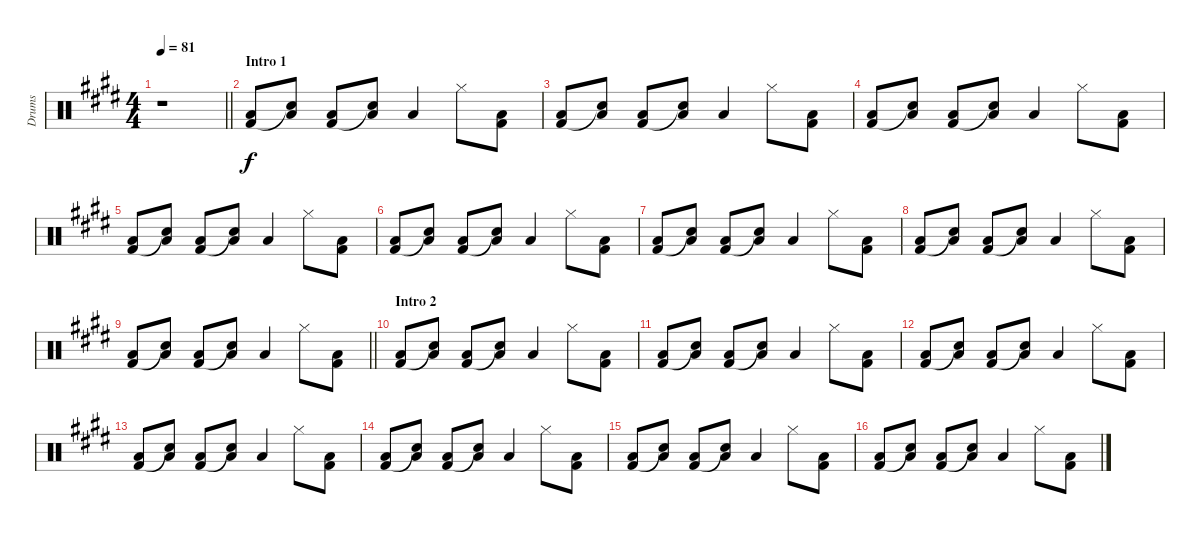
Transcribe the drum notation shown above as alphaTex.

\track ("Drums" "Drums") {instrument percussion}
\staff {score}
\articulation defaults
\ts (4 4)
\tempo 81
\clef neutral
\barLineRight lightlight
\ks c#minor
r.1{dy f} |
\section ("" "Intro 1")
("Low Floor Tom (hit)" "Kick (hit) 2").8 ("Low Floor Tom (hit)" "Snare (hit)"{t}).8 ("Low Floor Tom (hit)" "Kick (hit) 2").8 ("Low Floor Tom (hit)" "Snare (hit)"{t}).8 "Low Tom (hit)".4 "Hi-Hat (closed)".8 ("Low Floor Tom (hit)" "Kick (hit) 2").8 |
("Low Floor Tom (hit)" "Kick (hit) 2").8 ("Low Floor Tom (hit)" "Snare (hit)"{t}).8 ("Low Floor Tom (hit)" "Kick (hit) 2").8 ("Low Floor Tom (hit)" "Snare (hit)"{t}).8 "Low Tom (hit)".4 "Hi-Hat (closed)".8 ("Low Floor Tom (hit)" "Kick (hit) 2").8 |
("Low Floor Tom (hit)" "Kick (hit) 2").8 ("Low Floor Tom (hit)" "Snare (hit)"{t}).8 ("Low Floor Tom (hit)" "Kick (hit) 2").8 ("Low Floor Tom (hit)" "Snare (hit)"{t}).8 "Low Tom (hit)".4 "Hi-Hat (closed)".8 ("Low Floor Tom (hit)" "Kick (hit) 2").8 |
("Low Floor Tom (hit)" "Kick (hit) 2").8 ("Low Floor Tom (hit)" "Snare (hit)"{t}).8 ("Low Floor Tom (hit)" "Kick (hit) 2").8 ("Low Floor Tom (hit)" "Snare (hit)"{t}).8 "Low Tom (hit)".4 "Hi-Hat (closed)".8 ("Low Floor Tom (hit)" "Kick (hit) 2").8 |
("Low Floor Tom (hit)" "Kick (hit) 2").8 ("Low Floor Tom (hit)" "Snare (hit)"{t}).8 ("Low Floor Tom (hit)" "Kick (hit) 2").8 ("Low Floor Tom (hit)" "Snare (hit)"{t}).8 "Low Tom (hit)".4 "Hi-Hat (closed)".8 ("Low Floor Tom (hit)" "Kick (hit) 2").8 |
("Low Floor Tom (hit)" "Kick (hit) 2").8 ("Low Floor Tom (hit)" "Snare (hit)"{t}).8 ("Low Floor Tom (hit)" "Kick (hit) 2").8 ("Low Floor Tom (hit)" "Snare (hit)"{t}).8 "Low Tom (hit)".4 "Hi-Hat (closed)".8 ("Low Floor Tom (hit)" "Kick (hit) 2").8 |
("Low Floor Tom (hit)" "Kick (hit) 2").8 ("Low Floor Tom (hit)" "Snare (hit)"{t}).8 ("Low Floor Tom (hit)" "Kick (hit) 2").8 ("Low Floor Tom (hit)" "Snare (hit)"{t}).8 "Low Tom (hit)".4 "Hi-Hat (closed)".8 ("Low Floor Tom (hit)" "Kick (hit) 2").8 |
\barLineRight lightlight
("Low Floor Tom (hit)" "Kick (hit) 2").8 ("Low Floor Tom (hit)" "Snare (hit)"{t}).8 ("Low Floor Tom (hit)" "Kick (hit) 2").8 ("Low Floor Tom (hit)" "Snare (hit)"{t}).8 "Low Tom (hit)".4 "Hi-Hat (closed)".8 ("Low Floor Tom (hit)" "Kick (hit) 2").8 |
\section ("" "Intro 2")
("Low Floor Tom (hit)" "Kick (hit) 2").8 ("Low Floor Tom (hit)" "Snare (hit)"{t}).8 ("Low Floor Tom (hit)" "Kick (hit) 2").8 ("Low Floor Tom (hit)" "Snare (hit)"{t}).8 "Low Tom (hit)".4 "Hi-Hat (closed)".8 ("Low Floor Tom (hit)" "Kick (hit) 2").8 |
("Low Floor Tom (hit)" "Kick (hit) 2").8 ("Low Floor Tom (hit)" "Snare (hit)"{t}).8 ("Low Floor Tom (hit)" "Kick (hit) 2").8 ("Low Floor Tom (hit)" "Snare (hit)"{t}).8 "Low Tom (hit)".4 "Hi-Hat (closed)".8 ("Low Floor Tom (hit)" "Kick (hit) 2").8 |
("Low Floor Tom (hit)" "Kick (hit) 2").8 ("Low Floor Tom (hit)" "Snare (hit)"{t}).8 ("Low Floor Tom (hit)" "Kick (hit) 2").8 ("Low Floor Tom (hit)" "Snare (hit)"{t}).8 "Low Tom (hit)".4 "Hi-Hat (closed)".8 ("Low Floor Tom (hit)" "Kick (hit) 2").8 |
("Low Floor Tom (hit)" "Kick (hit) 2").8 ("Low Floor Tom (hit)" "Snare (hit)"{t}).8 ("Low Floor Tom (hit)" "Kick (hit) 2").8 ("Low Floor Tom (hit)" "Snare (hit)"{t}).8 "Low Tom (hit)".4 "Hi-Hat (closed)".8 ("Low Floor Tom (hit)" "Kick (hit) 2").8 |
("Low Floor Tom (hit)" "Kick (hit) 2").8 ("Low Floor Tom (hit)" "Snare (hit)"{t}).8 ("Low Floor Tom (hit)" "Kick (hit) 2").8 ("Low Floor Tom (hit)" "Snare (hit)"{t}).8 "Low Tom (hit)".4 "Hi-Hat (closed)".8 ("Low Floor Tom (hit)" "Kick (hit) 2").8 |
("Low Floor Tom (hit)" "Kick (hit) 2").8 ("Low Floor Tom (hit)" "Snare (hit)"{t}).8 ("Low Floor Tom (hit)" "Kick (hit) 2").8 ("Low Floor Tom (hit)" "Snare (hit)"{t}).8 "Low Tom (hit)".4 "Hi-Hat (closed)".8 ("Low Floor Tom (hit)" "Kick (hit) 2").8 |
("Low Floor Tom (hit)" "Kick (hit) 2").8 ("Low Floor Tom (hit)" "Snare (hit)"{t}).8 ("Low Floor Tom (hit)" "Kick (hit) 2").8 ("Low Floor Tom (hit)" "Snare (hit)"{t}).8 "Low Tom (hit)".4 "Hi-Hat (closed)".8 ("Low Floor Tom (hit)" "Kick (hit) 2").8
